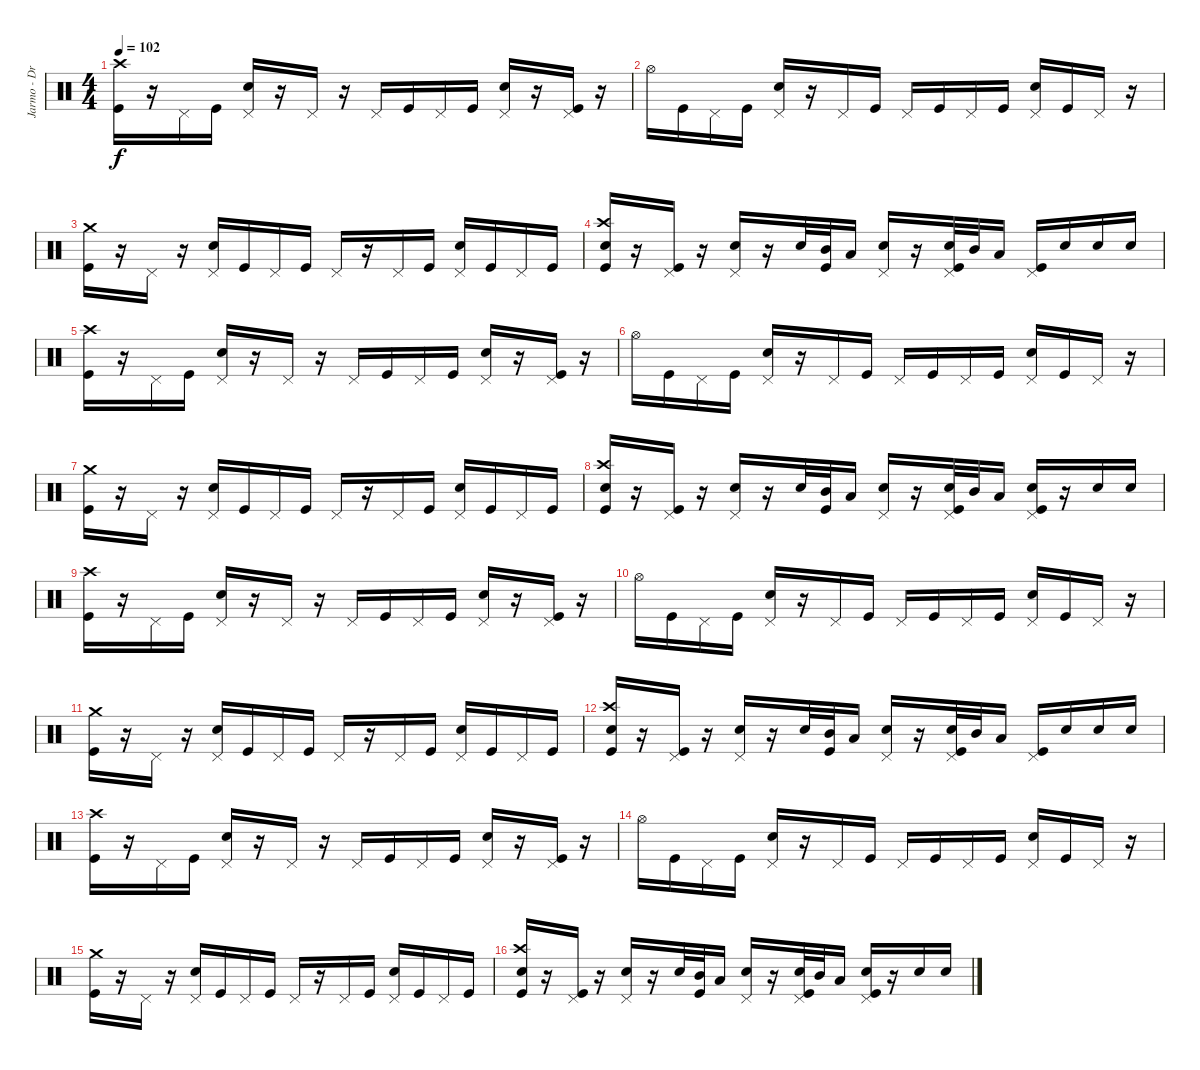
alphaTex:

\track ("Jarmo - Drums" "Jarmo - Dr") {instrument percussion}
\staff {score}
\articulation defaults
\ts (4 4)
\tempo 102
\clef neutral
\ks c
("Kick (hit)" "Crash high (hit)").16{dy f} r.16 "Pedal Hi-Hat (hit)".16 "Kick (hit)".16 ("Electric Snare (hit)" "Pedal Hi-Hat (hit)").16 r.16 "Pedal Hi-Hat (hit)".16 r.16 "Pedal Hi-Hat (hit)".16 "Kick (hit)".16 "Pedal Hi-Hat (hit)".16 "Kick (hit)".16 ("Electric Snare (hit)" "Pedal Hi-Hat (hit)").16 r.16 ("Kick (hit)" "Pedal Hi-Hat (hit)").16 r.16 |
"Hi-Hat (open)".16 "Kick (hit)".16 "Pedal Hi-Hat (hit)".16 "Kick (hit)".16 ("Electric Snare (hit)" "Pedal Hi-Hat (hit)").16 r.16 "Pedal Hi-Hat (hit)".16 "Kick (hit)".16 "Pedal Hi-Hat (hit)".16 "Kick (hit)".16 "Pedal Hi-Hat (hit)".16 "Kick (hit)".16 ("Electric Snare (hit)" "Pedal Hi-Hat (hit)").16 "Kick (hit)".16 "Pedal Hi-Hat (hit)".16 r.16 |
("Kick (hit)" "Crash medium (hit)").16 r.16 "Pedal Hi-Hat (hit)".16 r.16 ("Electric Snare (hit)" "Pedal Hi-Hat (hit)").16 "Kick (hit)".16 "Pedal Hi-Hat (hit)".16 "Kick (hit)".16 "Pedal Hi-Hat (hit)".16 r.16 "Pedal Hi-Hat (hit)".16 "Kick (hit)".16 ("Electric Snare (hit)" "Pedal Hi-Hat (hit)").16 "Kick (hit)".16 "Pedal Hi-Hat (hit)".16 "Kick (hit)".16 |
("Kick (hit)" "Electric Snare (hit)" "Crash high (hit)").16 r.16 ("Kick (hit)" "Pedal Hi-Hat (hit)").16 r.16 ("Electric Snare (hit)" "Pedal Hi-Hat (hit)").16 r.16 "Electric Snare (hit)".32 ("Kick (hit)" "Mid Tom (hit)").32 "Low Tom (hit)".16 ("Electric Snare (hit)" "Pedal Hi-Hat (hit)").16 r.16 ("Kick (hit)" "Electric Snare (hit)" "Pedal Hi-Hat (hit)").32 "Mid Tom (hit)".32 "Low Tom (hit)".16 ("Kick (hit)" "Pedal Hi-Hat (hit)").16 "Electric Snare (hit)".16 "Electric Snare (hit)".16 "Electric Snare (hit)".16 |
("Kick (hit)" "Crash high (hit)").16 r.16 "Pedal Hi-Hat (hit)".16 "Kick (hit)".16 ("Electric Snare (hit)" "Pedal Hi-Hat (hit)").16 r.16 "Pedal Hi-Hat (hit)".16 r.16 "Pedal Hi-Hat (hit)".16 "Kick (hit)".16 "Pedal Hi-Hat (hit)".16 "Kick (hit)".16 ("Electric Snare (hit)" "Pedal Hi-Hat (hit)").16 r.16 ("Kick (hit)" "Pedal Hi-Hat (hit)").16 r.16 |
"Hi-Hat (open)".16 "Kick (hit)".16 "Pedal Hi-Hat (hit)".16 "Kick (hit)".16 ("Electric Snare (hit)" "Pedal Hi-Hat (hit)").16 r.16 "Pedal Hi-Hat (hit)".16 "Kick (hit)".16 "Pedal Hi-Hat (hit)".16 "Kick (hit)".16 "Pedal Hi-Hat (hit)".16 "Kick (hit)".16 ("Electric Snare (hit)" "Pedal Hi-Hat (hit)").16 "Kick (hit)".16 "Pedal Hi-Hat (hit)".16 r.16 |
("Kick (hit)" "Crash medium (hit)").16 r.16 "Pedal Hi-Hat (hit)".16 r.16 ("Electric Snare (hit)" "Pedal Hi-Hat (hit)").16 "Kick (hit)".16 "Pedal Hi-Hat (hit)".16 "Kick (hit)".16 "Pedal Hi-Hat (hit)".16 r.16 "Pedal Hi-Hat (hit)".16 "Kick (hit)".16 ("Electric Snare (hit)" "Pedal Hi-Hat (hit)").16 "Kick (hit)".16 "Pedal Hi-Hat (hit)".16 "Kick (hit)".16 |
("Kick (hit)" "Electric Snare (hit)" "Crash high (hit)").16 r.16 ("Kick (hit)" "Pedal Hi-Hat (hit)").16 r.16 ("Electric Snare (hit)" "Pedal Hi-Hat (hit)").16 r.16 "Electric Snare (hit)".32 ("Kick (hit)" "Mid Tom (hit)").32 "Low Tom (hit)".16 ("Electric Snare (hit)" "Pedal Hi-Hat (hit)").16 r.16 ("Kick (hit)" "Electric Snare (hit)" "Pedal Hi-Hat (hit)").32 "Mid Tom (hit)".32 "Low Tom (hit)".16 ("Kick (hit)" "Electric Snare (hit)" "Pedal Hi-Hat (hit)").16 r.16 "Electric Snare (hit)".16 "Electric Snare (hit)".16 |
("Kick (hit)" "Crash high (hit)").16 r.16 "Pedal Hi-Hat (hit)".16 "Kick (hit)".16 ("Electric Snare (hit)" "Pedal Hi-Hat (hit)").16 r.16 "Pedal Hi-Hat (hit)".16 r.16 "Pedal Hi-Hat (hit)".16 "Kick (hit)".16 "Pedal Hi-Hat (hit)".16 "Kick (hit)".16 ("Electric Snare (hit)" "Pedal Hi-Hat (hit)").16 r.16 ("Kick (hit)" "Pedal Hi-Hat (hit)").16 r.16 |
"Hi-Hat (open)".16 "Kick (hit)".16 "Pedal Hi-Hat (hit)".16 "Kick (hit)".16 ("Electric Snare (hit)" "Pedal Hi-Hat (hit)").16 r.16 "Pedal Hi-Hat (hit)".16 "Kick (hit)".16 "Pedal Hi-Hat (hit)".16 "Kick (hit)".16 "Pedal Hi-Hat (hit)".16 "Kick (hit)".16 ("Electric Snare (hit)" "Pedal Hi-Hat (hit)").16 "Kick (hit)".16 "Pedal Hi-Hat (hit)".16 r.16 |
("Kick (hit)" "Crash medium (hit)").16 r.16 "Pedal Hi-Hat (hit)".16 r.16 ("Electric Snare (hit)" "Pedal Hi-Hat (hit)").16 "Kick (hit)".16 "Pedal Hi-Hat (hit)".16 "Kick (hit)".16 "Pedal Hi-Hat (hit)".16 r.16 "Pedal Hi-Hat (hit)".16 "Kick (hit)".16 ("Electric Snare (hit)" "Pedal Hi-Hat (hit)").16 "Kick (hit)".16 "Pedal Hi-Hat (hit)".16 "Kick (hit)".16 |
("Kick (hit)" "Electric Snare (hit)" "Crash high (hit)").16 r.16 ("Kick (hit)" "Pedal Hi-Hat (hit)").16 r.16 ("Electric Snare (hit)" "Pedal Hi-Hat (hit)").16 r.16 "Electric Snare (hit)".32 ("Kick (hit)" "Mid Tom (hit)").32 "Low Tom (hit)".16 ("Electric Snare (hit)" "Pedal Hi-Hat (hit)").16 r.16 ("Kick (hit)" "Electric Snare (hit)" "Pedal Hi-Hat (hit)").32 "Mid Tom (hit)".32 "Low Tom (hit)".16 ("Kick (hit)" "Pedal Hi-Hat (hit)").16 "Electric Snare (hit)".16 "Electric Snare (hit)".16 "Electric Snare (hit)".16 |
("Kick (hit)" "Crash high (hit)").16 r.16 "Pedal Hi-Hat (hit)".16 "Kick (hit)".16 ("Electric Snare (hit)" "Pedal Hi-Hat (hit)").16 r.16 "Pedal Hi-Hat (hit)".16 r.16 "Pedal Hi-Hat (hit)".16 "Kick (hit)".16 "Pedal Hi-Hat (hit)".16 "Kick (hit)".16 ("Electric Snare (hit)" "Pedal Hi-Hat (hit)").16 r.16 ("Kick (hit)" "Pedal Hi-Hat (hit)").16 r.16 |
"Hi-Hat (open)".16 "Kick (hit)".16 "Pedal Hi-Hat (hit)".16 "Kick (hit)".16 ("Electric Snare (hit)" "Pedal Hi-Hat (hit)").16 r.16 "Pedal Hi-Hat (hit)".16 "Kick (hit)".16 "Pedal Hi-Hat (hit)".16 "Kick (hit)".16 "Pedal Hi-Hat (hit)".16 "Kick (hit)".16 ("Electric Snare (hit)" "Pedal Hi-Hat (hit)").16 "Kick (hit)".16 "Pedal Hi-Hat (hit)".16 r.16 |
("Kick (hit)" "Crash medium (hit)").16 r.16 "Pedal Hi-Hat (hit)".16 r.16 ("Electric Snare (hit)" "Pedal Hi-Hat (hit)").16 "Kick (hit)".16 "Pedal Hi-Hat (hit)".16 "Kick (hit)".16 "Pedal Hi-Hat (hit)".16 r.16 "Pedal Hi-Hat (hit)".16 "Kick (hit)".16 ("Electric Snare (hit)" "Pedal Hi-Hat (hit)").16 "Kick (hit)".16 "Pedal Hi-Hat (hit)".16 "Kick (hit)".16 |
("Kick (hit)" "Electric Snare (hit)" "Crash high (hit)").16 r.16 ("Kick (hit)" "Pedal Hi-Hat (hit)").16 r.16 ("Electric Snare (hit)" "Pedal Hi-Hat (hit)").16 r.16 "Electric Snare (hit)".32 ("Kick (hit)" "Mid Tom (hit)").32 "Low Tom (hit)".16 ("Electric Snare (hit)" "Pedal Hi-Hat (hit)").16 r.16 ("Kick (hit)" "Electric Snare (hit)" "Pedal Hi-Hat (hit)").32 "Mid Tom (hit)".32 "Low Tom (hit)".16 ("Kick (hit)" "Electric Snare (hit)" "Pedal Hi-Hat (hit)").16 r.16 "Electric Snare (hit)".16 "Electric Snare (hit)".16
